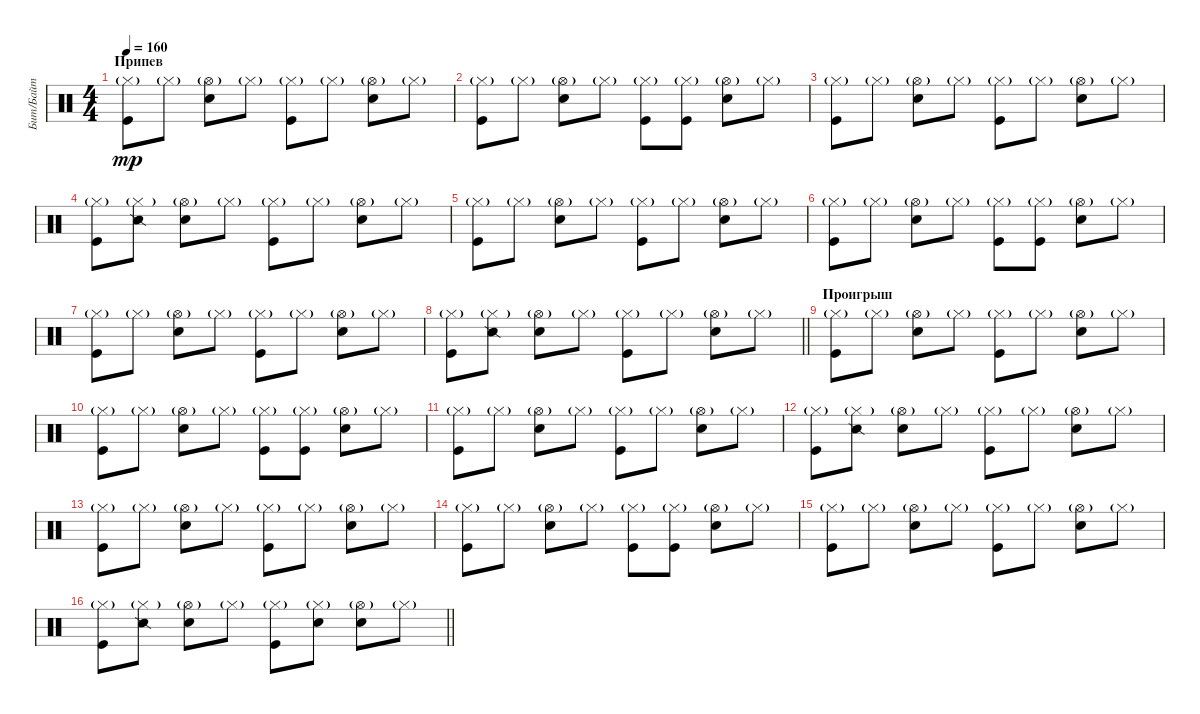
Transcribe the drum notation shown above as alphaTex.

\track ("Бит/Байт" "Бит/Байт") {instrument percussion}
\staff {score}
\articulation defaults
\ts (4 4)
\section ("" "Припев")
\tempo 160
\clef neutral
\ks c
("Hi-Hat (closed)"{g} "Kick (hit)").8{dy mp} "Hi-Hat (closed)"{g}.8 ("Hi-Hat (open)"{g} "Snare (hit) 2").8 "Hi-Hat (closed)"{g}.8 ("Hi-Hat (closed)"{g} "Kick (hit)").8 "Hi-Hat (closed)"{g}.8 ("Hi-Hat (open)"{g} "Snare (hit) 2").8 "Hi-Hat (closed)"{g}.8 |
("Hi-Hat (closed)"{g} "Kick (hit)").8 "Hi-Hat (closed)"{g}.8 ("Hi-Hat (open)"{g} "Snare (hit) 2").8 "Hi-Hat (closed)"{g}.8 ("Hi-Hat (closed)"{g} "Kick (hit)").8 ("Hi-Hat (closed)"{g} "Kick (hit)").8 ("Hi-Hat (open)"{g} "Snare (hit) 2").8 "Hi-Hat (closed)"{g}.8 |
("Hi-Hat (closed)"{g} "Kick (hit)").8 "Hi-Hat (closed)"{g}.8 ("Hi-Hat (open)"{g} "Snare (hit) 2").8 "Hi-Hat (closed)"{g}.8 ("Hi-Hat (closed)"{g} "Kick (hit)").8 "Hi-Hat (closed)"{g}.8 ("Hi-Hat (open)"{g} "Snare (hit) 2").8 "Hi-Hat (closed)"{g}.8 |
("Hi-Hat (closed)"{g} "Kick (hit)").8 ("Hi-Hat (closed)"{g} "Snare (side stick) 2").8 ("Hi-Hat (open)"{g} "Snare (hit) 2").8 "Hi-Hat (closed)"{g}.8 ("Hi-Hat (closed)"{g} "Kick (hit)").8 "Hi-Hat (closed)"{g}.8 ("Hi-Hat (open)"{g} "Snare (hit) 2").8 "Hi-Hat (closed)"{g}.8 |
("Hi-Hat (closed)"{g} "Kick (hit)").8 "Hi-Hat (closed)"{g}.8 ("Hi-Hat (open)"{g} "Snare (hit) 2").8 "Hi-Hat (closed)"{g}.8 ("Hi-Hat (closed)"{g} "Kick (hit)").8 "Hi-Hat (closed)"{g}.8 ("Hi-Hat (open)"{g} "Snare (hit) 2").8 "Hi-Hat (closed)"{g}.8 |
("Hi-Hat (closed)"{g} "Kick (hit)").8 "Hi-Hat (closed)"{g}.8 ("Hi-Hat (open)"{g} "Snare (hit) 2").8 "Hi-Hat (closed)"{g}.8 ("Hi-Hat (closed)"{g} "Kick (hit)").8 ("Hi-Hat (closed)"{g} "Kick (hit)").8 ("Hi-Hat (open)"{g} "Snare (hit) 2").8 "Hi-Hat (closed)"{g}.8 |
("Hi-Hat (closed)"{g} "Kick (hit)").8 "Hi-Hat (closed)"{g}.8 ("Hi-Hat (open)"{g} "Snare (hit) 2").8 "Hi-Hat (closed)"{g}.8 ("Hi-Hat (closed)"{g} "Kick (hit)").8 "Hi-Hat (closed)"{g}.8 ("Hi-Hat (open)"{g} "Snare (hit) 2").8 "Hi-Hat (closed)"{g}.8 |
\barLineRight lightlight
("Hi-Hat (closed)"{g} "Kick (hit)").8 ("Hi-Hat (closed)"{g} "Snare (side stick) 2").8 ("Hi-Hat (open)"{g} "Snare (hit) 2").8 "Hi-Hat (closed)"{g}.8 ("Hi-Hat (closed)"{g} "Kick (hit)").8 "Hi-Hat (closed)"{g}.8 ("Hi-Hat (open)"{g} "Snare (hit) 2").8 "Hi-Hat (closed)"{g}.8 |
\section ("" "Проигрыш")
("Hi-Hat (closed)"{g} "Kick (hit)").8 "Hi-Hat (closed)"{g}.8 ("Hi-Hat (open)"{g} "Snare (hit) 2").8 "Hi-Hat (closed)"{g}.8 ("Hi-Hat (closed)"{g} "Kick (hit)").8 "Hi-Hat (closed)"{g}.8 ("Hi-Hat (open)"{g} "Snare (hit) 2").8 "Hi-Hat (closed)"{g}.8 |
("Hi-Hat (closed)"{g} "Kick (hit)").8 "Hi-Hat (closed)"{g}.8 ("Hi-Hat (open)"{g} "Snare (hit) 2").8 "Hi-Hat (closed)"{g}.8 ("Hi-Hat (closed)"{g} "Kick (hit)").8 ("Hi-Hat (closed)"{g} "Kick (hit)").8 ("Hi-Hat (open)"{g} "Snare (hit) 2").8 "Hi-Hat (closed)"{g}.8 |
("Hi-Hat (closed)"{g} "Kick (hit)").8 "Hi-Hat (closed)"{g}.8 ("Hi-Hat (open)"{g} "Snare (hit) 2").8 "Hi-Hat (closed)"{g}.8 ("Hi-Hat (closed)"{g} "Kick (hit)").8 "Hi-Hat (closed)"{g}.8 ("Hi-Hat (open)"{g} "Snare (hit) 2").8 "Hi-Hat (closed)"{g}.8 |
("Hi-Hat (closed)"{g} "Kick (hit)").8 ("Hi-Hat (closed)"{g} "Snare (side stick) 2").8 ("Hi-Hat (open)"{g} "Snare (hit) 2").8 "Hi-Hat (closed)"{g}.8 ("Hi-Hat (closed)"{g} "Kick (hit)").8 "Hi-Hat (closed)"{g}.8 ("Hi-Hat (open)"{g} "Snare (hit) 2").8 "Hi-Hat (closed)"{g}.8 |
("Hi-Hat (closed)"{g} "Kick (hit)").8 "Hi-Hat (closed)"{g}.8 ("Hi-Hat (open)"{g} "Snare (hit) 2").8 "Hi-Hat (closed)"{g}.8 ("Hi-Hat (closed)"{g} "Kick (hit)").8 "Hi-Hat (closed)"{g}.8 ("Hi-Hat (open)"{g} "Snare (hit) 2").8 "Hi-Hat (closed)"{g}.8 |
("Hi-Hat (closed)"{g} "Kick (hit)").8 "Hi-Hat (closed)"{g}.8 ("Hi-Hat (open)"{g} "Snare (hit) 2").8 "Hi-Hat (closed)"{g}.8 ("Hi-Hat (closed)"{g} "Kick (hit)").8 ("Hi-Hat (closed)"{g} "Kick (hit)").8 ("Hi-Hat (open)"{g} "Snare (hit) 2").8 "Hi-Hat (closed)"{g}.8 |
("Hi-Hat (closed)"{g} "Kick (hit)").8 "Hi-Hat (closed)"{g}.8 ("Hi-Hat (open)"{g} "Snare (hit) 2").8 "Hi-Hat (closed)"{g}.8 ("Hi-Hat (closed)"{g} "Kick (hit)").8 "Hi-Hat (closed)"{g}.8 ("Hi-Hat (open)"{g} "Snare (hit) 2").8 "Hi-Hat (closed)"{g}.8 |
\barLineRight lightlight
("Hi-Hat (closed)"{g} "Kick (hit)").8 ("Hi-Hat (closed)"{g} "Snare (side stick) 2").8 ("Hi-Hat (open)"{g} "Snare (hit) 2").8 "Hi-Hat (closed)"{g}.8 ("Hi-Hat (closed)"{g} "Kick (hit)").8 ("Hi-Hat (closed)"{g} "Snare (hit) 2").8 ("Hi-Hat (open)"{g} "Snare (hit) 2").8 "Hi-Hat (closed)"{g}.8
